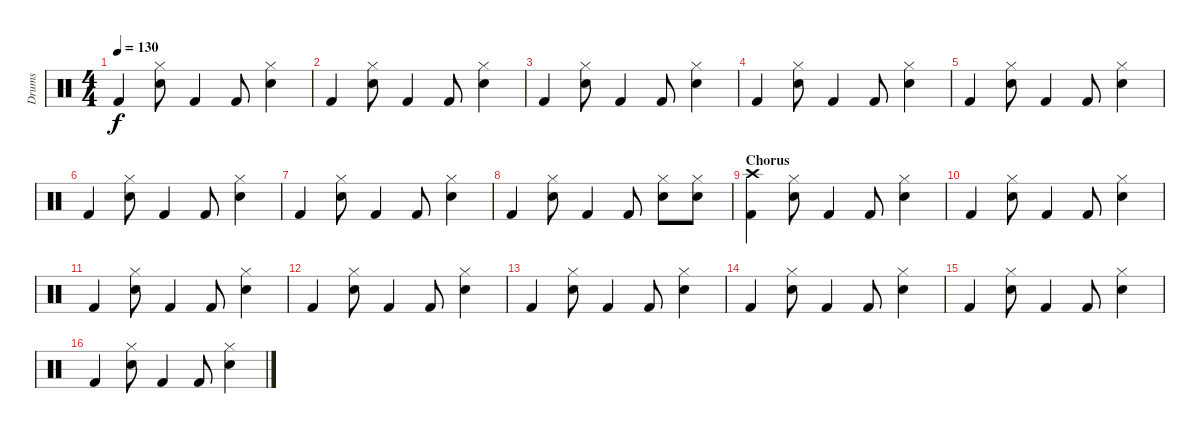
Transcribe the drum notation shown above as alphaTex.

\track ("Drums" "Drums") {instrument percussion}
\staff {score}
\articulation defaults
\ts (4 4)
\tempo 130
\clef neutral
\ks c "Kick (hit) 2".4{dy f}
("Hi-Hat (closed)" "Snare (hit) 2").8 "Kick (hit) 2".4 "Kick (hit) 2".8 ("Hi-Hat (closed)" "Snare (hit) 2").4 |
"Kick (hit) 2".4 ("Hi-Hat (closed)" "Snare (hit) 2").8 "Kick (hit) 2".4 "Kick (hit) 2".8 ("Hi-Hat (closed)" "Snare (hit) 2").4 |
"Kick (hit) 2".4 ("Hi-Hat (closed)" "Snare (hit) 2").8 "Kick (hit) 2".4 "Kick (hit) 2".8 ("Hi-Hat (closed)" "Snare (hit) 2").4 |
"Kick (hit) 2".4 ("Hi-Hat (closed)" "Snare (hit) 2").8 "Kick (hit) 2".4 "Kick (hit) 2".8 ("Hi-Hat (closed)" "Snare (hit) 2").4 |
"Kick (hit) 2".4 ("Hi-Hat (closed)" "Snare (hit) 2").8 "Kick (hit) 2".4 "Kick (hit) 2".8 ("Hi-Hat (closed)" "Snare (hit) 2").4 |
"Kick (hit) 2".4 ("Hi-Hat (closed)" "Snare (hit) 2").8 "Kick (hit) 2".4 "Kick (hit) 2".8 ("Hi-Hat (closed)" "Snare (hit) 2").4 |
"Kick (hit) 2".4 ("Hi-Hat (closed)" "Snare (hit) 2").8 "Kick (hit) 2".4 "Kick (hit) 2".8 ("Hi-Hat (closed)" "Snare (hit) 2").4 |
"Kick (hit) 2".4 ("Hi-Hat (closed)" "Snare (hit) 2").8 "Kick (hit) 2".4 "Kick (hit) 2".8 ("Hi-Hat (closed)" "Snare (hit) 2").8 ("Hi-Hat (closed)" "Snare (hit) 2").8 |
\section ("" "Chorus")
("Crash high (hit)" "Kick (hit) 2").4 ("Hi-Hat (closed)" "Snare (hit) 2").8 "Kick (hit) 2".4 "Kick (hit) 2".8 ("Hi-Hat (closed)" "Snare (hit) 2").4 |
"Kick (hit) 2".4 ("Hi-Hat (closed)" "Snare (hit) 2").8 "Kick (hit) 2".4 "Kick (hit) 2".8 ("Hi-Hat (closed)" "Snare (hit) 2").4 |
"Kick (hit) 2".4 ("Hi-Hat (closed)" "Snare (hit) 2").8 "Kick (hit) 2".4 "Kick (hit) 2".8 ("Hi-Hat (closed)" "Snare (hit) 2").4 |
"Kick (hit) 2".4 ("Hi-Hat (closed)" "Snare (hit) 2").8 "Kick (hit) 2".4 "Kick (hit) 2".8 ("Hi-Hat (closed)" "Snare (hit) 2").4 |
"Kick (hit) 2".4 ("Hi-Hat (closed)" "Snare (hit) 2").8 "Kick (hit) 2".4 "Kick (hit) 2".8 ("Hi-Hat (closed)" "Snare (hit) 2").4 |
"Kick (hit) 2".4 ("Hi-Hat (closed)" "Snare (hit) 2").8 "Kick (hit) 2".4 "Kick (hit) 2".8 ("Hi-Hat (closed)" "Snare (hit) 2").4 |
"Kick (hit) 2".4 ("Hi-Hat (closed)" "Snare (hit) 2").8 "Kick (hit) 2".4 "Kick (hit) 2".8 ("Hi-Hat (closed)" "Snare (hit) 2").4 |
"Kick (hit) 2".4 ("Hi-Hat (closed)" "Snare (hit) 2").8 "Kick (hit) 2".4 "Kick (hit) 2".8 ("Hi-Hat (closed)" "Snare (hit) 2").4
